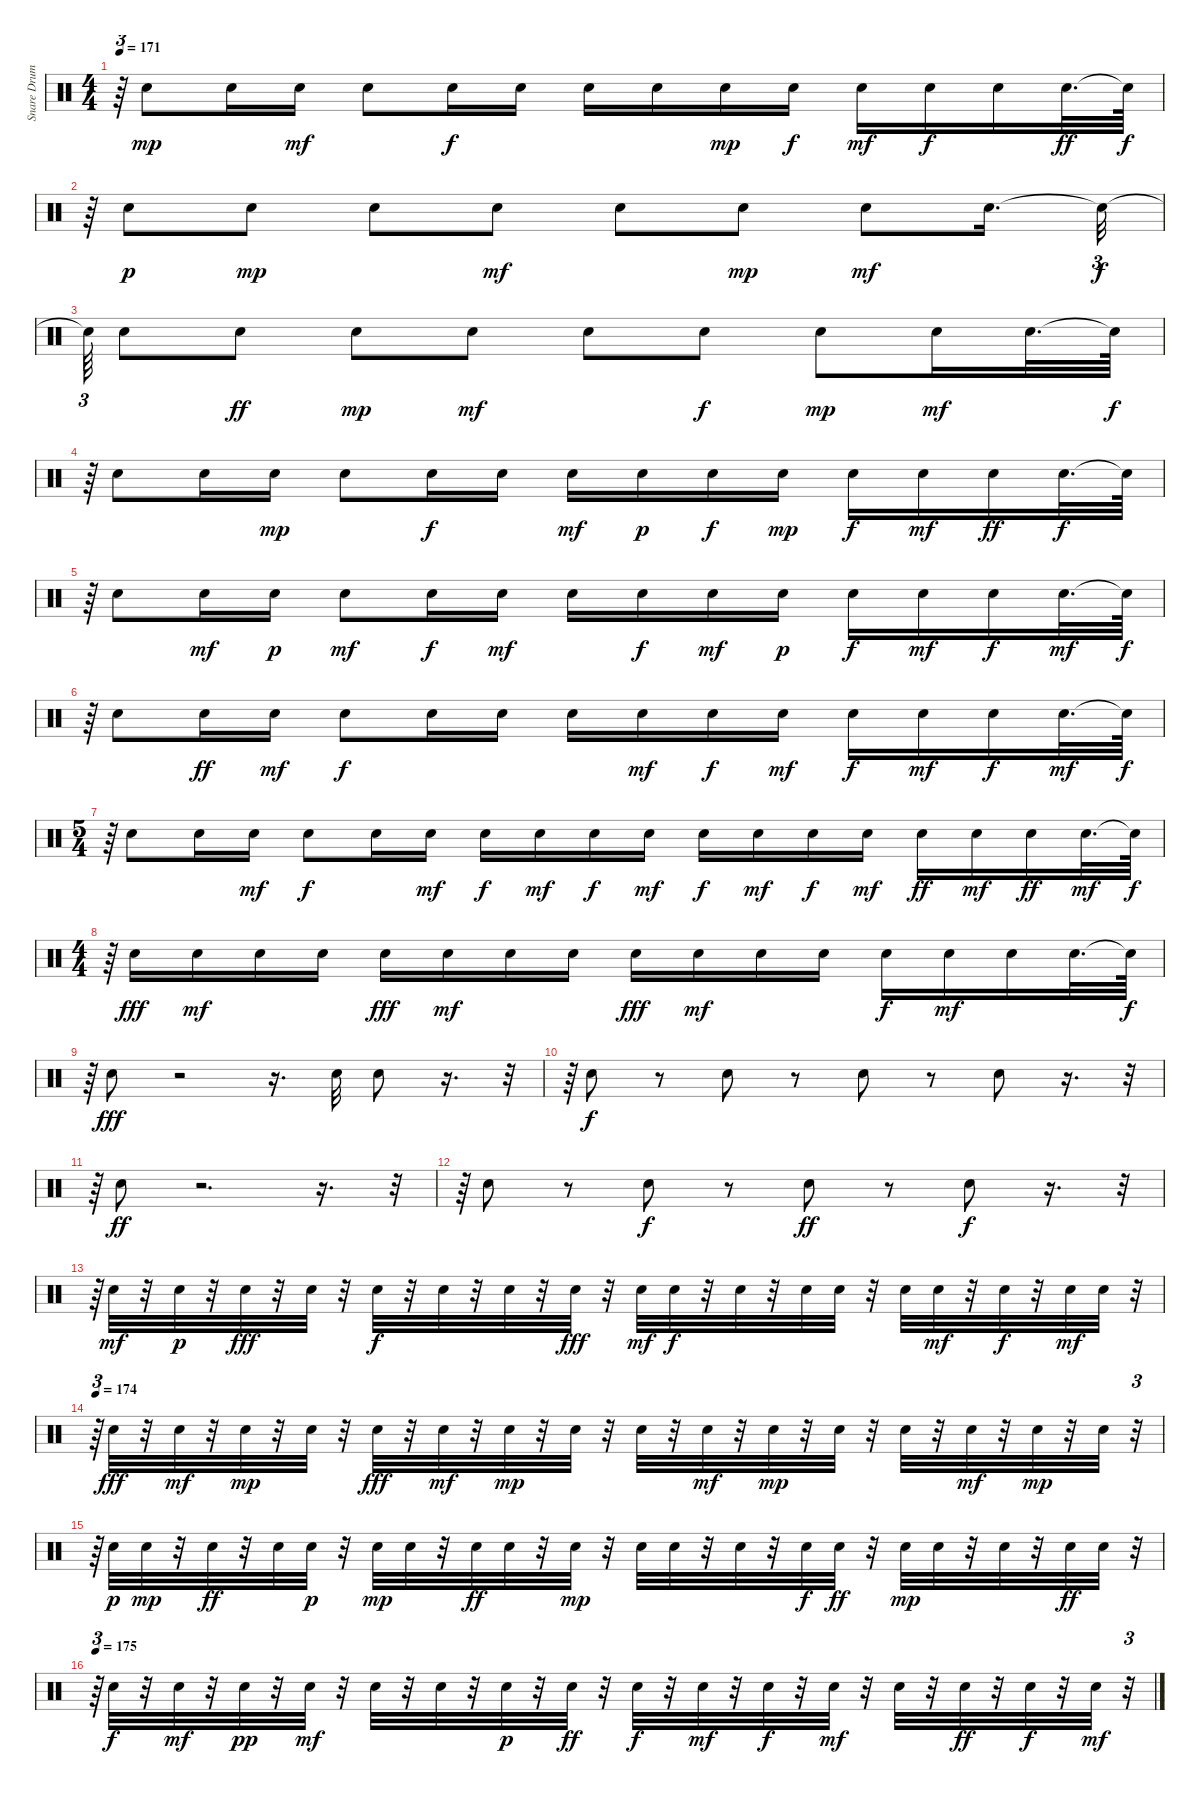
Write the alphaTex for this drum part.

\track ("Snare Drums" "Snare Drum") {instrument percussion}
\staff {score}
\articulation defaults
\ts (4 4)
\tempo 171
\clef neutral
\ks c
r.64{tu (3 2) dy f} "Electric Snare (hit)".8{dy mp} "Electric Snare (hit)".16 "Electric Snare (hit)".16{dy mf} "Electric Snare (hit)".8 "Electric Snare (hit)".16{dy f} "Electric Snare (hit)".16 "Electric Snare (hit)".16 "Electric Snare (hit)".16 "Electric Snare (hit)".16{dy mp} "Electric Snare (hit)".16{dy f} "Electric Snare (hit)".16{dy mf} "Electric Snare (hit)".16{dy f} "Electric Snare (hit)".16 "Electric Snare (hit)".32{d dy ff} "Snare (hit)"{t}.64{dy f} |
r.64{tu (3 2)} "Electric Snare (hit)".8{dy p} "Electric Snare (hit)".8{dy mp} "Electric Snare (hit)".8 "Electric Snare (hit)".8{dy mf} "Electric Snare (hit)".8 "Electric Snare (hit)".8{dy mp} "Electric Snare (hit)".8{dy mf} "Electric Snare (hit)".16{d} "Snare (hit)"{t}.32{tu (3 2) dy f} |
"Snare (hit)"{t}.64{tu (3 2)} "Electric Snare (hit)".8 "Electric Snare (hit)".8{dy ff} "Electric Snare (hit)".8{dy mp} "Electric Snare (hit)".8{dy mf} "Electric Snare (hit)".8 "Electric Snare (hit)".8{dy f} "Electric Snare (hit)".8{dy mp} "Electric Snare (hit)".16{dy mf} "Electric Snare (hit)".32{d} "Snare (hit)"{t}.64{dy f} |
r.64{tu (3 2)} "Electric Snare (hit)".8 "Electric Snare (hit)".16 "Electric Snare (hit)".16{dy mp} "Electric Snare (hit)".8 "Electric Snare (hit)".16{dy f} "Electric Snare (hit)".16 "Electric Snare (hit)".16{dy mf} "Electric Snare (hit)".16{dy p} "Electric Snare (hit)".16{dy f} "Electric Snare (hit)".16{dy mp} "Electric Snare (hit)".16{dy f} "Electric Snare (hit)".16{dy mf} "Electric Snare (hit)".16{dy ff} "Electric Snare (hit)".32{d dy f} "Snare (hit)"{t}.64 |
r.64{tu (3 2)} "Electric Snare (hit)".8 "Electric Snare (hit)".16{dy mf} "Electric Snare (hit)".16{dy p} "Electric Snare (hit)".8{dy mf} "Electric Snare (hit)".16{dy f} "Electric Snare (hit)".16{dy mf} "Electric Snare (hit)".16 "Electric Snare (hit)".16{dy f} "Electric Snare (hit)".16{dy mf} "Electric Snare (hit)".16{dy p} "Electric Snare (hit)".16{dy f} "Electric Snare (hit)".16{dy mf} "Electric Snare (hit)".16{dy f} "Electric Snare (hit)".32{d dy mf} "Snare (hit)"{t}.64{dy f} |
r.64{tu (3 2)} "Electric Snare (hit)".8 "Electric Snare (hit)".16{dy ff} "Electric Snare (hit)".16{dy mf} "Electric Snare (hit)".8{dy f} "Electric Snare (hit)".16 "Electric Snare (hit)".16 "Electric Snare (hit)".16 "Electric Snare (hit)".16{dy mf} "Electric Snare (hit)".16{dy f} "Electric Snare (hit)".16{dy mf} "Electric Snare (hit)".16{dy f} "Electric Snare (hit)".16{dy mf} "Electric Snare (hit)".16{dy f} "Electric Snare (hit)".32{d dy mf} "Snare (hit)"{t}.64{dy f} |
\ts (5 4)
r.64{tu (3 2)} "Electric Snare (hit)".8 "Electric Snare (hit)".16 "Electric Snare (hit)".16{dy mf} "Electric Snare (hit)".8{dy f} "Electric Snare (hit)".16 "Electric Snare (hit)".16{dy mf} "Electric Snare (hit)".16{dy f} "Electric Snare (hit)".16{dy mf} "Electric Snare (hit)".16{dy f} "Electric Snare (hit)".16{dy mf} "Electric Snare (hit)".16{dy f} "Electric Snare (hit)".16{dy mf} "Electric Snare (hit)".16{dy f} "Electric Snare (hit)".16{dy mf} "Electric Snare (hit)".16{dy ff} "Electric Snare (hit)".16{dy mf} "Electric Snare (hit)".16{dy ff} "Electric Snare (hit)".32{d dy mf} "Snare (hit)"{t}.64{dy f} |
\ts (4 4)
r.64{tu (3 2)} "Electric Snare (hit)".16{dy fff} "Electric Snare (hit)".16{dy mf} "Electric Snare (hit)".16 "Electric Snare (hit)".16 "Electric Snare (hit)".16{dy fff} "Electric Snare (hit)".16{dy mf} "Electric Snare (hit)".16 "Electric Snare (hit)".16 "Electric Snare (hit)".16{dy fff} "Electric Snare (hit)".16{dy mf} "Electric Snare (hit)".16 "Electric Snare (hit)".16 "Electric Snare (hit)".16{dy f} "Electric Snare (hit)".16{dy mf} "Electric Snare (hit)".16 "Electric Snare (hit)".32{d} "Snare (hit)"{t}.64{dy f} |
r.64{tu (3 2)} "Electric Snare (hit)".8{dy fff} r.2 r.16{d} "Electric Snare (hit)".32 "Electric Snare (hit)".8 r.16{d} r.32{tu (3 2)} |
r.64{tu (3 2)} "Electric Snare (hit)".8{dy f} r.8 "Electric Snare (hit)".8 r.8 "Electric Snare (hit)".8 r.8 "Electric Snare (hit)".8 r.16{d} r.32{tu (3 2)} |
r.64{tu (3 2)} "Electric Snare (hit)".8{dy ff} r.2{d} r.16{d} r.32{tu (3 2)} |
r.64{tu (3 2)} "Electric Snare (hit)".8 r.8 "Electric Snare (hit)".8{dy f} r.8 "Electric Snare (hit)".8{dy ff} r.8 "Electric Snare (hit)".8{dy f} r.16{d} r.32{tu (3 2)} |
r.64{tu (3 2)} "Electric Snare (hit)".32{dy mf} r.32 "Electric Snare (hit)".32{dy p} r.32 "Electric Snare (hit)".32{dy fff} r.32 "Electric Snare (hit)".32 r.32 "Electric Snare (hit)".32{dy f} r.32 "Electric Snare (hit)".32 r.32 "Electric Snare (hit)".32 r.32 "Electric Snare (hit)".32{dy fff} r.32 "Electric Snare (hit)".32{dy mf} "Electric Snare (hit)".32{dy f} r.32 "Electric Snare (hit)".32 r.32 "Electric Snare (hit)".32 "Electric Snare (hit)".32 r.32 "Electric Snare (hit)".32 "Electric Snare (hit)".32{dy mf} r.32 "Electric Snare (hit)".32{dy f} r.32 "Electric Snare (hit)".32{dy mf} "Electric Snare (hit)".32 r.32{tu (3 2)} |
\tempo 174
r.64{tu (3 2)} "Electric Snare (hit)".32{dy fff} r.32 "Electric Snare (hit)".32{dy mf} r.32 "Electric Snare (hit)".32{dy mp} r.32 "Electric Snare (hit)".32 r.32 "Electric Snare (hit)".32{dy fff} r.32 "Electric Snare (hit)".32{dy mf} r.32 "Electric Snare (hit)".32{dy mp} r.32 "Electric Snare (hit)".32 r.32 "Electric Snare (hit)".32 r.32 "Electric Snare (hit)".32{dy mf} r.32 "Electric Snare (hit)".32{dy mp} r.32 "Electric Snare (hit)".32 r.32 "Electric Snare (hit)".32 r.32 "Electric Snare (hit)".32{dy mf} r.32 "Electric Snare (hit)".32{dy mp} r.32 "Electric Snare (hit)".32 r.32{tu (3 2)} |
r.64{tu (3 2)} "Electric Snare (hit)".32{dy p} "Electric Snare (hit)".32{dy mp} r.32 "Electric Snare (hit)".32{dy ff} r.32 "Electric Snare (hit)".32 "Electric Snare (hit)".32{dy p} r.32 "Electric Snare (hit)".32{dy mp} "Electric Snare (hit)".32 r.32 "Electric Snare (hit)".32{dy ff} "Electric Snare (hit)".32 r.32 "Electric Snare (hit)".32{dy mp} r.32 "Electric Snare (hit)".32 "Electric Snare (hit)".32 r.32 "Electric Snare (hit)".32 r.32 "Electric Snare (hit)".32{dy f} "Electric Snare (hit)".32{dy ff} r.32 "Electric Snare (hit)".32{dy mp} "Electric Snare (hit)".32 r.32 "Electric Snare (hit)".32 r.32 "Electric Snare (hit)".32{dy ff} "Electric Snare (hit)".32 r.32{tu (3 2)} |
\tempo 175
r.64{tu (3 2)} "Electric Snare (hit)".32{dy f} r.32 "Electric Snare (hit)".32{dy mf} r.32 "Electric Snare (hit)".32{dy pp} r.32 "Electric Snare (hit)".32{dy mf} r.32 "Electric Snare (hit)".32 r.32 "Electric Snare (hit)".32 r.32 "Electric Snare (hit)".32{dy p} r.32 "Electric Snare (hit)".32{dy ff} r.32 "Electric Snare (hit)".32{dy f} r.32 "Electric Snare (hit)".32{dy mf} r.32 "Electric Snare (hit)".32{dy f} r.32 "Electric Snare (hit)".32{dy mf} r.32 "Electric Snare (hit)".32 r.32 "Electric Snare (hit)".32{dy ff} r.32 "Electric Snare (hit)".32{dy f} r.32 "Electric Snare (hit)".32{dy mf} r.32{tu (3 2)}
